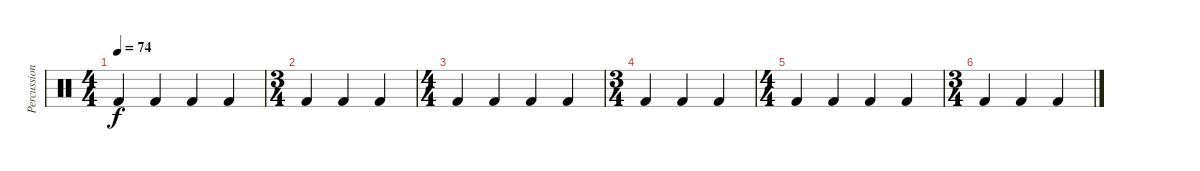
\track ("Percussion" "Percussion") {instrument percussion}
\staff {score}
\articulation defaults
\ts (4 4)
\tempo 74
\clef neutral
\ks c "Kick (hit) 2".4{dy f} "Kick (hit) 2".4 "Kick (hit) 2".4 "Kick (hit) 2".4
|
\ts (3 4)
"Kick (hit) 2".4 "Kick (hit) 2".4 "Kick (hit) 2".4 |
\ts (4 4)
"Kick (hit) 2".4 "Kick (hit) 2".4 "Kick (hit) 2".4 "Kick (hit) 2".4 |
\ts (3 4)
"Kick (hit) 2".4 "Kick (hit) 2".4 "Kick (hit) 2".4 |
\ts (4 4)
"Kick (hit) 2".4 "Kick (hit) 2".4 "Kick (hit) 2".4 "Kick (hit) 2".4 |
\ts (3 4)
"Kick (hit) 2".4 "Kick (hit) 2".4 "Kick (hit) 2".4
